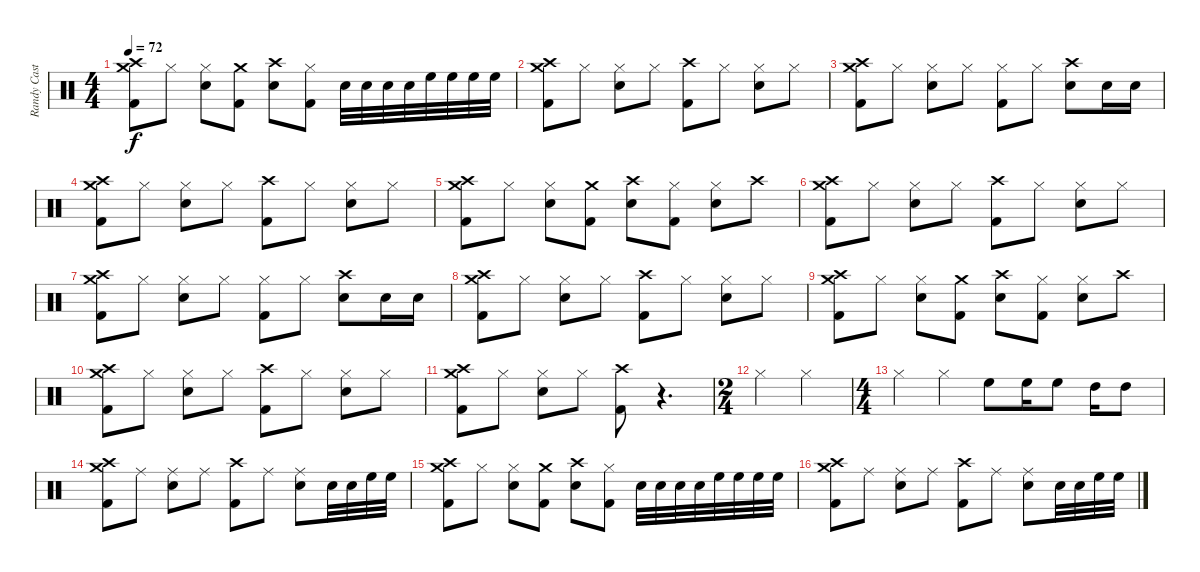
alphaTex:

\track ("Randy Castillo" "Randy Cast") {instrument percussion}
\staff {score}
\articulation defaults
\ts (4 4)
\tempo 72
\clef neutral
\ks c
("Crash medium (hit)" "Crash high (hit)" "Kick (hit) 2").8{dy f} "Hi-Hat (closed)".8 ("Hi-Hat (closed)" "Snare (hit) 2").8 ("Crash medium (hit)" "Kick (hit) 2").8 ("Crash high (hit)" "Snare (hit) 2").8 ("Hi-Hat (closed)" "Kick (hit) 2").8 "Snare (hit) 2".32 "Snare (hit) 2".32 "Snare (hit) 2".32 "Snare (hit) 2".32 "High Floor Tom (hit)".32 "High Floor Tom (hit)".32 "High Floor Tom (hit)".32 "High Floor Tom (hit)".32 |
("Crash medium (hit)" "Crash high (hit)" "Kick (hit) 2").8 "Hi-Hat (closed)".8 ("Hi-Hat (closed)" "Snare (hit) 2").8 "Hi-Hat (closed)".8 ("Crash high (hit)" "Kick (hit) 2").8 "Hi-Hat (closed)".8 ("Hi-Hat (closed)" "Snare (hit) 2").8 "Hi-Hat (closed)".8 |
("Crash medium (hit)" "Crash high (hit)" "Kick (hit) 2").8 "Hi-Hat (closed)".8 ("Hi-Hat (closed)" "Snare (hit) 2").8 "Hi-Hat (closed)".8 ("Hi-Hat (closed)" "Kick (hit) 2").8 "Hi-Hat (closed)".8 ("Crash high (hit)" "Snare (hit) 2").8 "Snare (hit) 2".16 "Snare (hit) 2".16 |
("Crash medium (hit)" "Crash high (hit)" "Kick (hit) 2").8 "Hi-Hat (closed)".8 ("Hi-Hat (closed)" "Snare (hit) 2").8 "Hi-Hat (closed)".8 ("Crash high (hit)" "Kick (hit) 2").8 "Hi-Hat (closed)".8 ("Hi-Hat (closed)" "Snare (hit) 2").8 "Hi-Hat (closed)".8 |
("Crash medium (hit)" "Crash high (hit)" "Kick (hit) 2").8 "Hi-Hat (closed)".8 ("Hi-Hat (closed)" "Snare (hit) 2").8 ("Crash medium (hit)" "Kick (hit) 2").8 ("Crash high (hit)" "Snare (hit) 2").8 ("Hi-Hat (closed)" "Kick (hit) 2").8 ("Hi-Hat (closed)" "Snare (hit) 2").8 "Crash high (hit)".8 |
("Crash medium (hit)" "Crash high (hit)" "Kick (hit) 2").8 "Hi-Hat (closed)".8 ("Hi-Hat (closed)" "Snare (hit) 2").8 "Hi-Hat (closed)".8 ("Crash high (hit)" "Kick (hit) 2").8 "Hi-Hat (closed)".8 ("Hi-Hat (closed)" "Snare (hit) 2").8 "Hi-Hat (closed)".8 |
("Crash medium (hit)" "Crash high (hit)" "Kick (hit) 2").8 "Hi-Hat (closed)".8 ("Hi-Hat (closed)" "Snare (hit) 2").8 "Hi-Hat (closed)".8 ("Hi-Hat (closed)" "Kick (hit) 2").8 "Hi-Hat (closed)".8 ("Crash high (hit)" "Snare (hit) 2").8 "Snare (hit) 2".16 "Snare (hit) 2".16 |
("Crash medium (hit)" "Crash high (hit)" "Kick (hit) 2").8 "Hi-Hat (closed)".8 ("Hi-Hat (closed)" "Snare (hit) 2").8 "Hi-Hat (closed)".8 ("Crash high (hit)" "Kick (hit) 2").8 "Hi-Hat (closed)".8 ("Hi-Hat (closed)" "Snare (hit) 2").8 "Hi-Hat (closed)".8 |
("Crash medium (hit)" "Crash high (hit)" "Kick (hit) 2").8 "Hi-Hat (closed)".8 ("Hi-Hat (closed)" "Snare (hit) 2").8 ("Crash medium (hit)" "Kick (hit) 2").8 ("Crash high (hit)" "Snare (hit) 2").8 ("Hi-Hat (closed)" "Kick (hit) 2").8 ("Hi-Hat (closed)" "Snare (hit) 2").8 "Crash high (hit)".8 |
("Crash medium (hit)" "Crash high (hit)" "Kick (hit) 2").8 "Hi-Hat (closed)".8 ("Hi-Hat (closed)" "Snare (hit) 2").8 "Hi-Hat (closed)".8 ("Crash high (hit)" "Kick (hit) 2").8 "Hi-Hat (closed)".8 ("Hi-Hat (closed)" "Snare (hit) 2").8 "Hi-Hat (closed)".8 |
("Crash medium (hit)" "Crash high (hit)" "Kick (hit) 2").8 "Hi-Hat (closed)".8 ("Hi-Hat (closed)" "Snare (hit) 2").8 "Hi-Hat (closed)".8 ("Crash high (hit)" "Kick (hit) 2").8 r.4{d} |
\ts (2 4)
"Hi-Hat (closed)".4 "Hi-Hat (closed)".4 |
\ts (4 4)
"Hi-Hat (closed)".4 "Hi-Hat (closed)".4 "High Floor Tom (hit)".8 "High Floor Tom (hit)".16 "High Floor Tom (hit)".8 "High Tom (hit)".16 "High Tom (hit)".8 |
("Crash medium (hit)" "Crash high (hit)" "Kick (hit) 2").8 "Ride (middle)".8 ("Ride (middle)" "Snare (hit) 2").8 "Ride (middle)".8 ("Crash high (hit)" "Kick (hit) 2").8 "Ride (middle)".8 ("Ride (middle)" "Snare (hit) 2").8 "Snare (hit) 2".32 "Snare (hit) 2".32 "High Floor Tom (hit)".32 "High Floor Tom (hit)".32 |
("Crash medium (hit)" "Crash high (hit)" "Kick (hit) 2").8 "Hi-Hat (closed)".8 ("Hi-Hat (closed)" "Snare (hit) 2").8 ("Crash medium (hit)" "Kick (hit) 2").8 ("Crash high (hit)" "Snare (hit) 2").8 ("Hi-Hat (closed)" "Kick (hit) 2").8 "Snare (hit) 2".32 "Snare (hit) 2".32 "Snare (hit) 2".32 "Snare (hit) 2".32 "High Floor Tom (hit)".32 "High Floor Tom (hit)".32 "High Floor Tom (hit)".32 "High Floor Tom (hit)".32 |
("Crash medium (hit)" "Crash high (hit)" "Kick (hit) 2").8 "Ride (middle)".8 ("Ride (middle)" "Snare (hit) 2").8 "Ride (middle)".8 ("Crash high (hit)" "Kick (hit) 2").8 "Ride (middle)".8 ("Ride (middle)" "Snare (hit) 2").8 "Snare (hit) 2".32 "Snare (hit) 2".32 "High Floor Tom (hit)".32 "High Floor Tom (hit)".32
